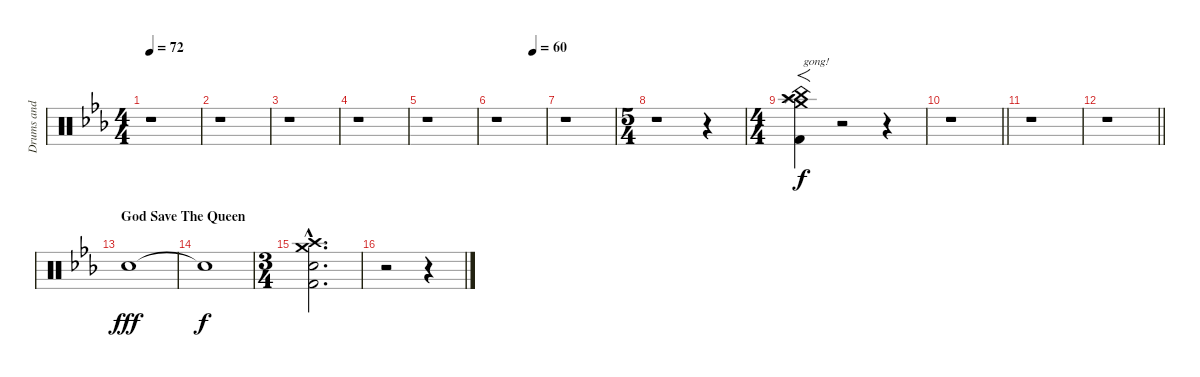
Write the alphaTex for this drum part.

\track ("Drums and percussion" "Drums and ") {instrument percussion}
\staff {score}
\articulation defaults
\ts (4 4)
\tempo 72
\clef neutral
\ks eb
r.1{dy f} |
r.1 |
r.1 |
r.1 |
r.1 |
\tempo (60 0.75)
r.1 |
r.1 |
\ts (5 4)
r.1 r.4 |
\ts (4 4)
("Crash medium (hit)" "Crash high (hit)" "Splash (hit)" "China (hit)" "Kick (hit) 2").4{f txt "gong!"} r.2 r.4 |
\barLineRight lightlight
r.1 |
r.1 |
\barLineRight lightlight
r.1{volume 0} |
\section ("" "God Save The Queen")
"Snare (hit) 2"{tr (38 64)}.1{dy fff volume 9 balance 8} |
"Snare (hit)"{t}.1{dy f} |
\ts (3 4)
("Crash high (hit)"{hac} "Crash medium (hit)"{hac} "Snare (hit) 2"{hac} "Kick (hit) 2"{hac}).2{d} |
r.2 r.4
